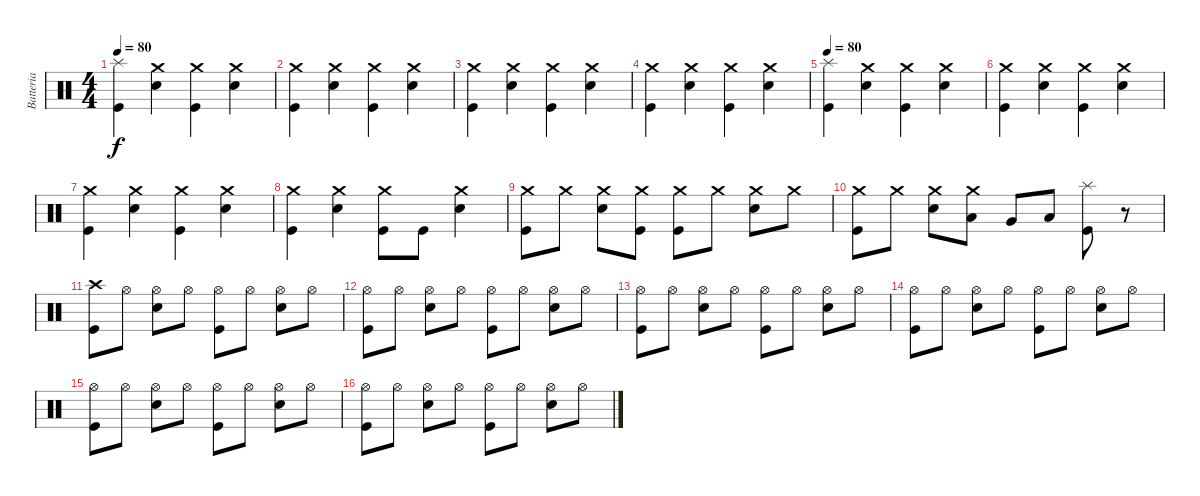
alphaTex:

\track ("Batteria" "Batteria") {instrument percussion}
\staff {score}
\articulation defaults
\ts (4 4)
\tempo 80
\clef neutral
\ks c
("Splash (hit)" "Kick (hit)").4{dy f} ("Crash medium (hit)" "Electric Snare (hit)").4{volume 16} ("Crash medium (hit)" "Kick (hit)").4 ("Crash medium (hit)" "Electric Snare (hit)").4 |
("Crash medium (hit)" "Kick (hit)").4 ("Crash medium (hit)" "Electric Snare (hit)").4 ("Crash medium (hit)" "Kick (hit)").4 ("Crash medium (hit)" "Electric Snare (hit)").4 |
("Crash medium (hit)" "Kick (hit)").4 ("Crash medium (hit)" "Electric Snare (hit)").4 ("Crash medium (hit)" "Kick (hit)").4 ("Crash medium (hit)" "Electric Snare (hit)").4 |
("Crash medium (hit)" "Kick (hit)").4 ("Crash medium (hit)" "Electric Snare (hit)").4 ("Crash medium (hit)" "Kick (hit)").4 ("Crash medium (hit)" "Electric Snare (hit)").4 |
\tempo 80
("Splash (hit)" "Kick (hit)").4 ("Crash medium (hit)" "Electric Snare (hit)").4 ("Crash medium (hit)" "Kick (hit)").4 ("Crash medium (hit)" "Electric Snare (hit)").4 |
("Crash medium (hit)" "Kick (hit)").4 ("Crash medium (hit)" "Electric Snare (hit)").4 ("Crash medium (hit)" "Kick (hit)").4 ("Crash medium (hit)" "Electric Snare (hit)").4 |
("Crash medium (hit)" "Kick (hit)").4 ("Crash medium (hit)" "Electric Snare (hit)").4 ("Kick (hit)" "Crash medium (hit)").4 ("Crash medium (hit)" "Electric Snare (hit)").4 |
("Crash medium (hit)" "Kick (hit)").4 ("Crash medium (hit)" "Electric Snare (hit)").4 ("Crash medium (hit)" "Kick (hit)").8 "Kick (hit)".8 ("Crash medium (hit)" "Electric Snare (hit)").4 |
("Crash medium (hit)" "Kick (hit)").8 "Crash medium (hit)".8 ("Crash medium (hit)" "Electric Snare (hit)").8 ("Kick (hit)" "Crash medium (hit)").8 ("Crash medium (hit)" "Kick (hit)").8 "Crash medium (hit)".8 ("Crash medium (hit)" "Electric Snare (hit)").8 "Crash medium (hit)".8 |
("Crash medium (hit)" "Kick (hit)").8 "Crash medium (hit)".8 ("Crash medium (hit)" "Electric Snare (hit)").8 ("Crash medium (hit)" "Low Tom (hit)").8 "Very Low Tom (hit)".8 "Low Floor Tom (hit)".8 ("Kick (hit)" "Splash (hit)").8 r.8 |
("Kick (hit)" "Crash high (hit)").8 "Hi-Hat (open)".8 ("Hi-Hat (open)" "Electric Snare (hit)").8 "Hi-Hat (open)".8 ("Hi-Hat (open)" "Kick (hit)").8 "Hi-Hat (open)".8 ("Hi-Hat (open)" "Electric Snare (hit)").8 "Hi-Hat (open)".8 |
("Hi-Hat (open)" "Kick (hit)").8 "Hi-Hat (open)".8 ("Hi-Hat (open)" "Electric Snare (hit)").8 "Hi-Hat (open)".8 ("Hi-Hat (open)" "Kick (hit)").8 "Hi-Hat (open)".8 ("Hi-Hat (open)" "Electric Snare (hit)").8 "Hi-Hat (open)".8 |
("Hi-Hat (open)" "Kick (hit)").8 "Hi-Hat (open)".8 ("Hi-Hat (open)" "Electric Snare (hit)").8 "Hi-Hat (open)".8 ("Hi-Hat (open)" "Kick (hit)").8 "Hi-Hat (open)".8 ("Hi-Hat (open)" "Electric Snare (hit)").8 "Hi-Hat (open)".8 |
("Kick (hit)" "Hi-Hat (open)").8 "Hi-Hat (open)".8 ("Electric Snare (hit)" "Hi-Hat (open)").8 "Hi-Hat (open)".8 ("Kick (hit)" "Hi-Hat (open)").8 "Hi-Hat (open)".8 ("Electric Snare (hit)" "Hi-Hat (open)").8 "Hi-Hat (open)".8 |
("Hi-Hat (open)" "Kick (hit)").8 "Hi-Hat (open)".8 ("Hi-Hat (open)" "Electric Snare (hit)").8 "Hi-Hat (open)".8 ("Hi-Hat (open)" "Kick (hit)").8 "Hi-Hat (open)".8 ("Hi-Hat (open)" "Electric Snare (hit)").8 "Hi-Hat (open)".8 |
("Kick (hit)" "Hi-Hat (open)").8 "Hi-Hat (open)".8 ("Electric Snare (hit)" "Hi-Hat (open)").8 "Hi-Hat (open)".8 ("Kick (hit)" "Hi-Hat (open)").8 "Hi-Hat (open)".8 ("Electric Snare (hit)" "Hi-Hat (open)").8 "Hi-Hat (open)".8
